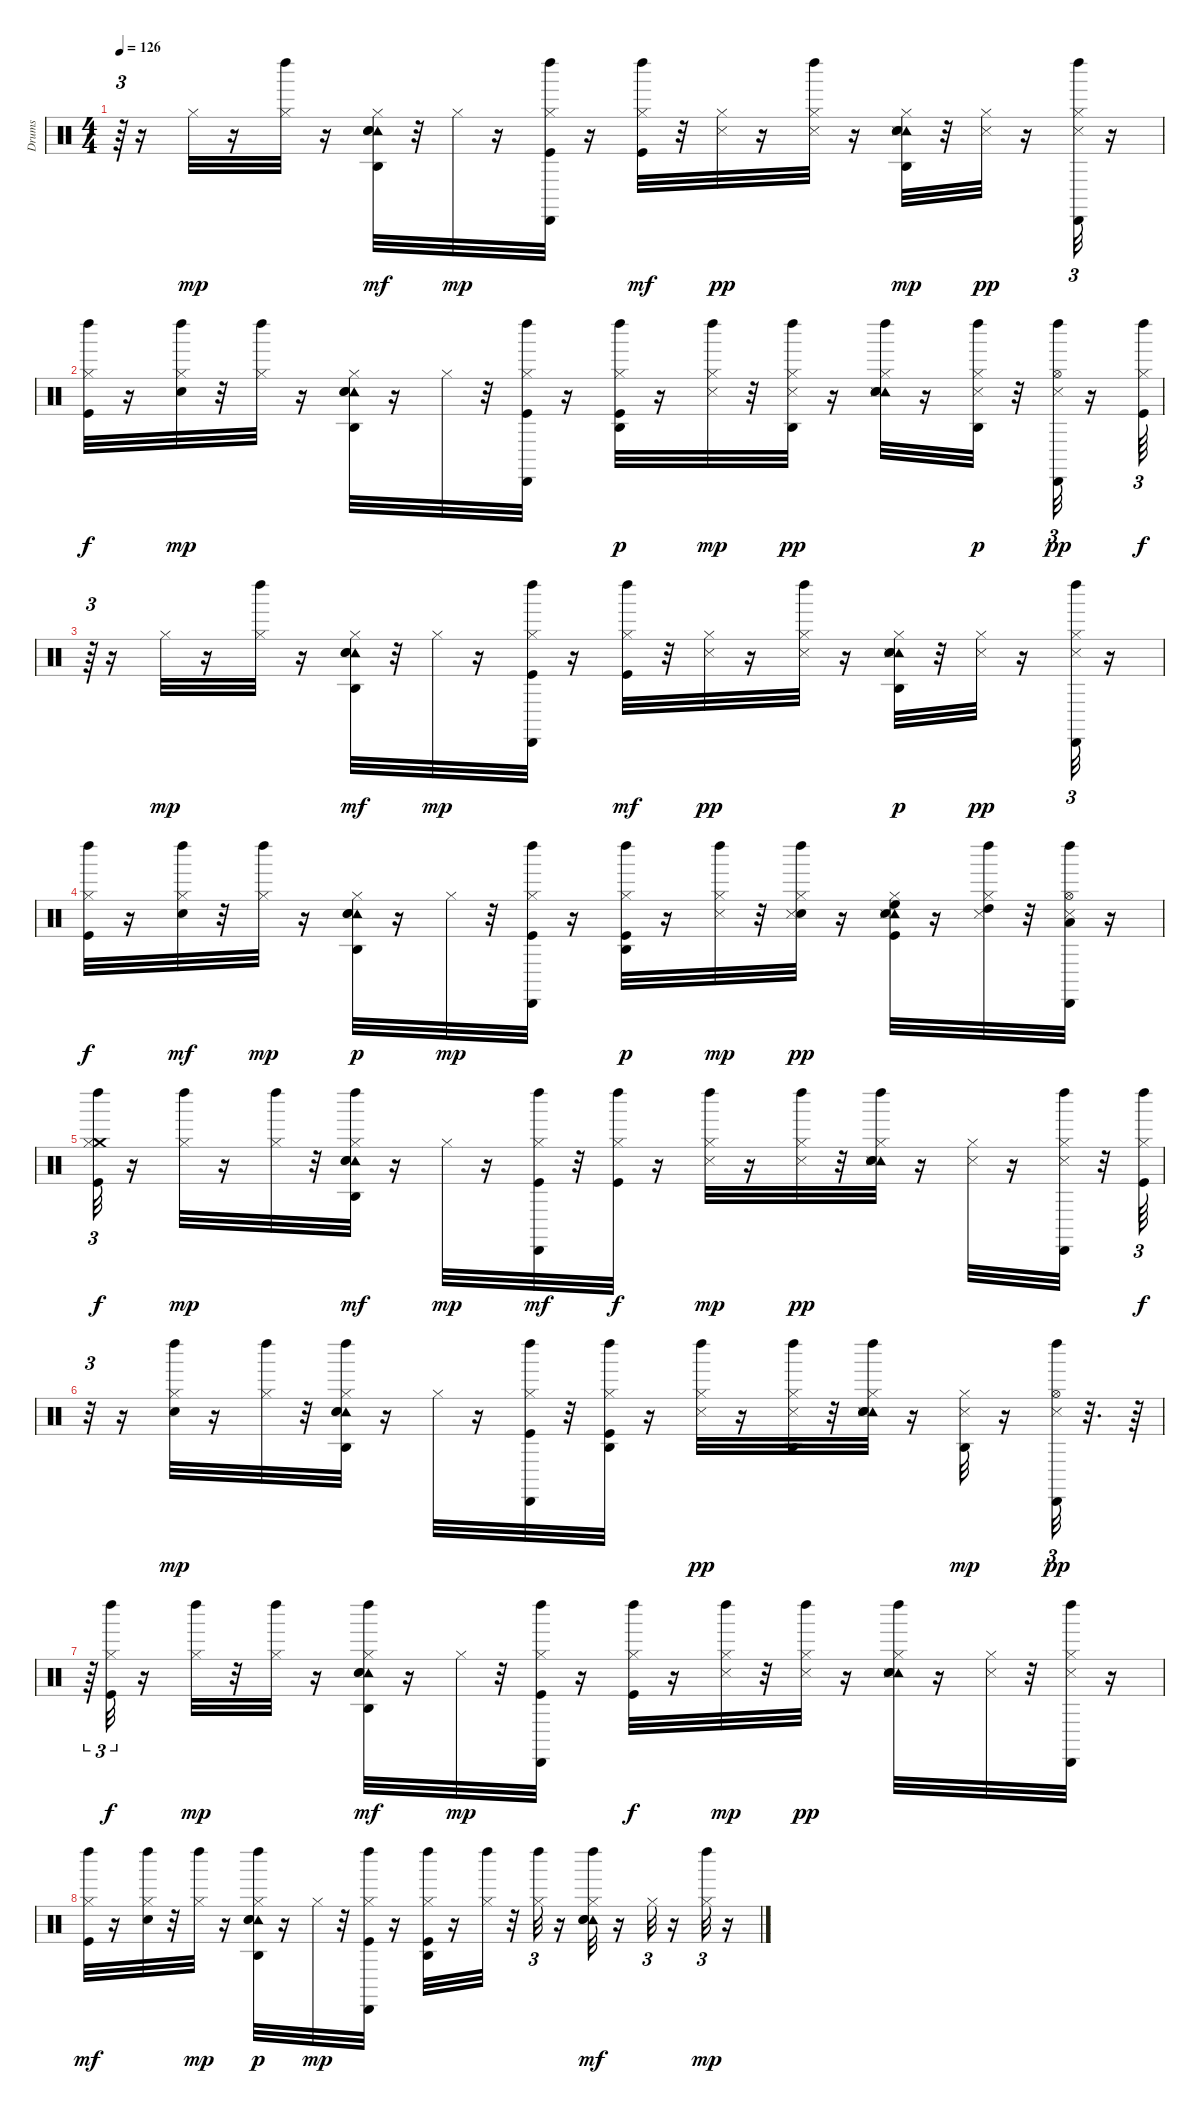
\track ("Drums" "Drums") {instrument percussion}
\staff {score}
\articulation defaults
\ts (4 4)
\tempo 126
\clef neutral
\ks c
r.64{tu (3 2) dy f} r.16 "Hi-Hat (closed)".32{dy mp} r.16 ("Hi-Hat (closed)" "Left Maraca (hit)").32 r.16 ("Hi-Hat (closed)" "Tambourine (hit)" "Agogo high (hit)" "Snare (hit) 2" "Hand Clap (hit)").32{dy mf} r.32 "Hi-Hat (closed)".32{dy mp} r.16 ("Cabasa (hit)" "Kick (hit)" "Hi-Hat (closed)" "Left Maraca (hit)").32 r.16 ("Hi-Hat (closed)" "Kick (hit)" "Left Maraca (hit)").32{dy mf} r.32 ("Hi-Hat (closed)" "Snare (side stick) 3").32{dy pp} r.16 ("Hi-Hat (closed)" "Left Maraca (hit)" "Snare (side stick) 3").32 r.16 ("Hi-Hat (closed)" "Tambourine (hit)" "Hand Clap (hit)" "Snare (hit) 2" "Snare (side stick) 3" "Agogo high (hit)").32{dy mp} r.32 ("Hi-Hat (closed)" "Snare (side stick) 3").32{dy pp} r.16 ("Cabasa (hit)" "Hi-Hat (closed)" "Left Maraca (hit)" "Snare (side stick) 3").32{tu (3 2)} r.16 |
("Kick (hit)" "Hi-Hat (closed)" "Left Maraca (hit)").32{dy f} r.16 ("Electric Snare (hit)" "Hi-Hat (closed)" "Left Maraca (hit)").32{dy mp} r.32 ("Left Maraca (hit)" "Hi-Hat (closed)").32 r.16 ("Tambourine (hit)" "Snare (hit) 2" "Hi-Hat (closed)" "Agogo high (hit)" "Hand Clap (hit)").32 r.16 "Hi-Hat (closed)".32 r.32 ("Kick (hit)" "Hi-Hat (closed)" "Left Maraca (hit)" "Cabasa (hit)").32 r.16 ("Kick (hit)" "Hi-Hat (closed)" "Left Maraca (hit)" "Agogo high (hit)").32{dy p} r.16 ("Hi-Hat (closed)" "Snare (side stick) 3" "Left Maraca (hit)").32{dy mp} r.32 ("Hi-Hat (closed)" "Left Maraca (hit)" "Agogo high (hit)" "Snare (side stick) 3").32{dy pp} r.16 ("Hi-Hat (closed)" "Tambourine (hit)" "Hand Clap (hit)" "Snare (hit) 2" "Snare (side stick) 3" "Left Maraca (hit)").32 r.16 ("Hi-Hat (closed)" "Left Maraca (hit)" "Snare (side stick) 3" "Agogo high (hit)").32{dy p} r.32 ("Hi-Hat (open)" "Left Maraca (hit)" "Cabasa (hit)" "Snare (side stick) 3").32{tu (3 2) dy pp} r.16 ("Kick (hit)" "Hi-Hat (closed)" "Left Maraca (hit)").64{tu (3 2) dy f} |
r.64{tu (3 2)} r.16 "Hi-Hat (closed)".32{dy mp} r.16 ("Hi-Hat (closed)" "Left Maraca (hit)").32 r.16 ("Hi-Hat (closed)" "Tambourine (hit)" "Agogo high (hit)" "Snare (hit) 2" "Hand Clap (hit)").32{dy mf} r.32 "Hi-Hat (closed)".32{dy mp} r.16 ("Cabasa (hit)" "Kick (hit)" "Hi-Hat (closed)" "Left Maraca (hit)").32 r.16 ("Hi-Hat (closed)" "Kick (hit)" "Left Maraca (hit)").32{dy mf} r.32 ("Hi-Hat (closed)" "Snare (side stick) 3").32{dy pp} r.16 ("Hi-Hat (closed)" "Left Maraca (hit)" "Snare (side stick) 3").32 r.16 ("Hi-Hat (closed)" "Tambourine (hit)" "Hand Clap (hit)" "Snare (hit) 2" "Snare (side stick) 3" "Agogo high (hit)").32{dy p} r.32 ("Hi-Hat (closed)" "Snare (side stick) 3").32{dy pp} r.16 ("Cabasa (hit)" "Hi-Hat (closed)" "Left Maraca (hit)" "Snare (side stick) 3").32{tu (3 2)} r.16 |
("Kick (hit)" "Hi-Hat (closed)" "Left Maraca (hit)").32{dy f} r.16 ("Electric Snare (hit)" "Hi-Hat (closed)" "Left Maraca (hit)").32{dy mf} r.32 ("Left Maraca (hit)" "Hi-Hat (closed)").32{dy mp} r.16 ("Tambourine (hit)" "Snare (hit) 2" "Hi-Hat (closed)" "Agogo high (hit)" "Hand Clap (hit)").32{dy p} r.16 "Hi-Hat (closed)".32{dy mp} r.32 ("Kick (hit)" "Hi-Hat (closed)" "Left Maraca (hit)" "Cabasa (hit)").32 r.16 ("Kick (hit)" "Hi-Hat (closed)" "Left Maraca (hit)" "Agogo high (hit)").32{dy p} r.16 ("Hi-Hat (closed)" "Snare (side stick) 3" "Left Maraca (hit)").32{dy mp} r.32 ("Hi-Hat (closed)" "Left Maraca (hit)" "Snare (hit) 2" "Snare (side stick) 3").32{dy pp} r.16 ("Hi-Hat (closed)" "Tambourine (hit)" "Hand Clap (hit)" "Kick (hit)" "High Floor Tom (hit)" "Snare (side stick) 3").32 r.16 ("Hi-Hat (closed)" "Left Maraca (hit)" "High Tom (hit)" "Snare (side stick) 3").32 r.32 ("Hi-Hat (open)" "Left Maraca (hit)" "Cabasa (hit)" "Low Tom (hit)" "Snare (side stick) 3").32 r.16 |
("Crash medium (hit)" "Kick (hit)" "Hi-Hat (closed)" "Left Maraca (hit)").32{tu (3 2) dy f} r.16 ("Hi-Hat (closed)" "Left Maraca (hit)").32{dy mp} r.16 ("Hi-Hat (closed)" "Left Maraca (hit)").32 r.32 ("Hi-Hat (closed)" "Tambourine (hit)" "Agogo high (hit)" "Snare (hit) 2" "Left Maraca (hit)" "Hand Clap (hit)").32{dy mf} r.16 "Hi-Hat (closed)".32{dy mp} r.16 ("Cabasa (hit)" "Kick (hit)" "Hi-Hat (closed)" "Left Maraca (hit)").32{dy mf} r.32 ("Hi-Hat (closed)" "Kick (hit)" "Left Maraca (hit)").32{dy f} r.16 ("Hi-Hat (closed)" "Snare (side stick) 3" "Left Maraca (hit)").32{dy mp} r.16 ("Hi-Hat (closed)" "Left Maraca (hit)" "Snare (side stick) 3").32{dy pp} r.32 ("Hi-Hat (closed)" "Tambourine (hit)" "Hand Clap (hit)" "Snare (hit) 2" "Snare (side stick) 3" "Left Maraca (hit)").32 r.16 ("Hi-Hat (closed)" "Snare (side stick) 3").32 r.16 ("Cabasa (hit)" "Hi-Hat (closed)" "Snare (side stick) 3" "Left Maraca (hit)").32 r.32 ("Left Maraca (hit)" "Kick (hit)" "Hi-Hat (closed)").64{tu (3 2) dy f} |
r.32{tu (3 2)} r.16 ("Electric Snare (hit)" "Left Maraca (hit)" "Hi-Hat (closed)").32{dy mp} r.16 ("Left Maraca (hit)" "Hi-Hat (closed)").32 r.32 ("Left Maraca (hit)" "Tambourine (hit)" "Snare (hit) 2" "Hi-Hat (closed)" "Agogo high (hit)" "Hand Clap (hit)").32 r.16 "Hi-Hat (closed)".32 r.16 ("Kick (hit)" "Hi-Hat (closed)" "Left Maraca (hit)" "Cabasa (hit)").32 r.32 ("Kick (hit)" "Hi-Hat (closed)" "Left Maraca (hit)" "Agogo high (hit)").32 r.16 ("Hi-Hat (closed)" "Left Maraca (hit)" "Snare (side stick) 3").32{dy pp} r.16 ("Hi-Hat (closed)" "Left Maraca (hit)" "Agogo high (hit)" "Snare (side stick) 3").32 r.32 ("Hi-Hat (closed)" "Tambourine (hit)" "Hand Clap (hit)" "Snare (hit) 2" "Snare (side stick) 3" "Left Maraca (hit)").32 r.16 ("Hi-Hat (closed)" "Snare (side stick) 3" "Agogo high (hit)").32{dy mp} r.16 ("Hi-Hat (open)" "Cabasa (hit)" "Snare (side stick) 3" "Left Maraca (hit)").32{tu (3 2) dy pp} r.32{d} r.64 |
r.64{tu (3 2)} ("Kick (hit)" "Hi-Hat (closed)" "Left Maraca (hit)").32{tu (3 2) dy f} r.16 ("Hi-Hat (closed)" "Left Maraca (hit)").32{dy mp} r.32 ("Hi-Hat (closed)" "Left Maraca (hit)").32 r.16 ("Hi-Hat (closed)" "Tambourine (hit)" "Agogo high (hit)" "Snare (hit) 2" "Left Maraca (hit)" "Hand Clap (hit)").32{dy mf} r.16 "Hi-Hat (closed)".32{dy mp} r.32 ("Cabasa (hit)" "Kick (hit)" "Hi-Hat (closed)" "Left Maraca (hit)").32 r.16 ("Hi-Hat (closed)" "Kick (hit)" "Left Maraca (hit)").32{dy f} r.16 ("Hi-Hat (closed)" "Snare (side stick) 3" "Left Maraca (hit)").32{dy mp} r.32 ("Hi-Hat (closed)" "Left Maraca (hit)" "Snare (side stick) 3").32{dy pp} r.16 ("Hi-Hat (closed)" "Tambourine (hit)" "Hand Clap (hit)" "Snare (hit) 2" "Snare (side stick) 3" "Left Maraca (hit)").32 r.16 ("Hi-Hat (closed)" "Snare (side stick) 3").32 r.32 ("Cabasa (hit)" "Hi-Hat (closed)" "Snare (side stick) 3" "Left Maraca (hit)").32 r.16 |
("Left Maraca (hit)" "Kick (hit)" "Hi-Hat (closed)").32{dy mf} r.16 ("Electric Snare (hit)" "Left Maraca (hit)" "Hi-Hat (closed)").32 r.32 ("Left Maraca (hit)" "Hi-Hat (closed)").32{dy mp} r.16 ("Left Maraca (hit)" "Tambourine (hit)" "Snare (hit) 2" "Hi-Hat (closed)" "Agogo high (hit)" "Hand Clap (hit)").32{dy p} r.16 "Hi-Hat (closed)".32{dy mp} r.32 ("Kick (hit)" "Hi-Hat (closed)" "Left Maraca (hit)" "Cabasa (hit)").32 r.16 ("Hi-Hat (closed)" "Kick (hit)" "Left Maraca (hit)" "Agogo high (hit)").32 r.16 ("Hi-Hat (closed)" "Left Maraca (hit)").32 r.32 ("Hi-Hat (closed)" "Left Maraca (hit)").32{tu (3 2)} r.16 ("Hi-Hat (closed)" "Tambourine (hit)" "Hand Clap (hit)" "Snare (hit) 2" "Left Maraca (hit)").32{dy mf} r.16 "Hi-Hat (closed)".32{tu (3 2)} r.16 ("Hi-Hat (closed)" "Left Maraca (hit)").32{tu (3 2) dy mp} r.16
